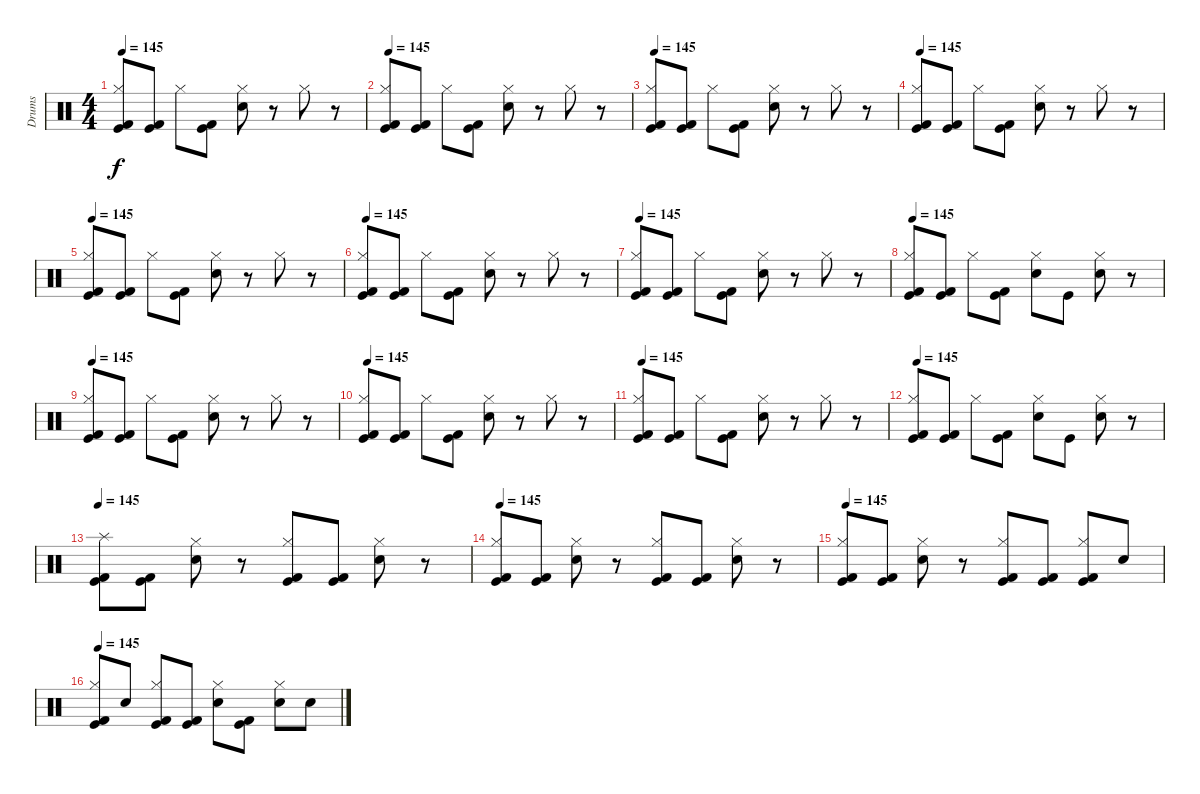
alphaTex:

\track ("Drums" "Drums") {instrument percussion}
\staff {score}
\articulation defaults
\ts (4 4)
\tempo 145
\clef neutral
\ks c
("Kick (hit) 2" "Hi-Hat (closed)" "Kick (hit)").8{dy f} ("Kick (hit) 2" "Kick (hit)").8 "Hi-Hat (closed)".8 ("Kick (hit) 2" "Kick (hit)").8 ("Electric Snare (hit)" "Hi-Hat (closed)").8 r.8 "Hi-Hat (closed)".8 r.8 |
\tempo 145
("Kick (hit) 2" "Hi-Hat (closed)" "Kick (hit)").8 ("Kick (hit) 2" "Kick (hit)").8 "Hi-Hat (closed)".8 ("Kick (hit) 2" "Kick (hit)").8 ("Electric Snare (hit)" "Hi-Hat (closed)").8 r.8 "Hi-Hat (closed)".8 r.8 |
\tempo 145
("Kick (hit) 2" "Hi-Hat (closed)" "Kick (hit)").8 ("Kick (hit)" "Kick (hit) 2").8 "Hi-Hat (closed)".8 ("Kick (hit) 2" "Kick (hit)").8 ("Electric Snare (hit)" "Hi-Hat (closed)").8 r.8 "Hi-Hat (closed)".8 r.8 |
\tempo 145
("Kick (hit) 2" "Hi-Hat (closed)" "Kick (hit)").8 ("Kick (hit) 2" "Kick (hit)").8 "Hi-Hat (closed)".8 ("Kick (hit) 2" "Kick (hit)").8 ("Electric Snare (hit)" "Hi-Hat (closed)").8 r.8 "Hi-Hat (closed)".8 r.8 |
\tempo 145
("Kick (hit) 2" "Hi-Hat (closed)" "Kick (hit)").8 ("Kick (hit) 2" "Kick (hit)").8 "Hi-Hat (closed)".8 ("Kick (hit) 2" "Kick (hit)").8 ("Electric Snare (hit)" "Hi-Hat (closed)").8 r.8 "Hi-Hat (closed)".8 r.8 |
\tempo 145
("Kick (hit) 2" "Hi-Hat (closed)" "Kick (hit)").8 ("Kick (hit) 2" "Kick (hit)").8 "Hi-Hat (closed)".8 ("Kick (hit) 2" "Kick (hit)").8 ("Electric Snare (hit)" "Hi-Hat (closed)").8 r.8 "Hi-Hat (closed)".8 r.8 |
\tempo 145
("Kick (hit) 2" "Hi-Hat (closed)" "Kick (hit)").8 ("Kick (hit)" "Kick (hit) 2").8 "Hi-Hat (closed)".8 ("Kick (hit) 2" "Kick (hit)").8 ("Electric Snare (hit)" "Hi-Hat (closed)").8 r.8 "Hi-Hat (closed)".8 r.8 |
\tempo 145
("Kick (hit) 2" "Hi-Hat (closed)" "Kick (hit)").8 ("Kick (hit) 2" "Kick (hit)").8 "Hi-Hat (closed)".8 ("Kick (hit) 2" "Kick (hit)").8 ("Electric Snare (hit)" "Hi-Hat (closed)").8 "Kick (hit)".8 ("Snare (hit) 2" "Hi-Hat (closed)").8 r.8 |
\tempo 145
("Kick (hit) 2" "Hi-Hat (closed)" "Kick (hit)").8 ("Kick (hit) 2" "Kick (hit)").8 "Hi-Hat (closed)".8 ("Kick (hit) 2" "Kick (hit)").8 ("Electric Snare (hit)" "Hi-Hat (closed)").8 r.8 "Hi-Hat (closed)".8 r.8 |
\tempo 145
("Kick (hit) 2" "Hi-Hat (closed)" "Kick (hit)").8 ("Kick (hit) 2" "Kick (hit)").8 "Hi-Hat (closed)".8 ("Kick (hit) 2" "Kick (hit)").8 ("Electric Snare (hit)" "Hi-Hat (closed)").8 r.8 "Hi-Hat (closed)".8 r.8 |
\tempo 145
("Kick (hit) 2" "Hi-Hat (closed)" "Kick (hit)").8 ("Kick (hit)" "Kick (hit) 2").8 "Hi-Hat (closed)".8 ("Kick (hit) 2" "Kick (hit)").8 ("Electric Snare (hit)" "Hi-Hat (closed)").8 r.8 "Hi-Hat (closed)".8 r.8 |
\tempo 145
("Kick (hit) 2" "Hi-Hat (closed)" "Kick (hit)").8 ("Kick (hit) 2" "Kick (hit)").8 "Hi-Hat (closed)".8 ("Kick (hit) 2" "Kick (hit)").8 ("Electric Snare (hit)" "Hi-Hat (closed)").8 "Kick (hit)".8 ("Snare (hit) 2" "Hi-Hat (closed)").8 r.8 |
\tempo 145
("Kick (hit)" "Splash (hit)" "Kick (hit) 2").8 ("Kick (hit)" "Kick (hit) 2").8 ("Hi-Hat (closed)" "Electric Snare (hit)").8 r.8 ("Kick (hit)" "Hi-Hat (closed)" "Kick (hit) 2").8 ("Kick (hit)" "Kick (hit) 2").8 ("Hi-Hat (closed)" "Electric Snare (hit)").8 r.8 |
\tempo 145
("Kick (hit)" "Hi-Hat (closed)" "Kick (hit) 2").8 ("Kick (hit)" "Kick (hit) 2").8 ("Hi-Hat (closed)" "Electric Snare (hit)").8 r.8 ("Kick (hit)" "Hi-Hat (closed)" "Kick (hit) 2").8 ("Kick (hit)" "Kick (hit) 2").8 ("Hi-Hat (closed)" "Electric Snare (hit)").8 r.8 |
\tempo 145
("Kick (hit)" "Hi-Hat (closed)" "Kick (hit) 2").8 ("Kick (hit)" "Kick (hit) 2").8 ("Hi-Hat (closed)" "Electric Snare (hit)").8 r.8 ("Kick (hit)" "Hi-Hat (closed)" "Kick (hit) 2").8 ("Kick (hit)" "Kick (hit) 2").8 ("Kick (hit)" "Hi-Hat (closed)" "Kick (hit) 2").8 "Electric Snare (hit)".8 |
\tempo 145
("Kick (hit)" "Hi-Hat (closed)" "Kick (hit) 2").8 "Electric Snare (hit)".8 ("Kick (hit)" "Hi-Hat (closed)" "Kick (hit) 2").8 ("Kick (hit) 2" "Kick (hit)").8 ("Hi-Hat (closed)" "Electric Snare (hit)").8 ("Kick (hit)" "Kick (hit) 2").8 ("Hi-Hat (closed)" "Electric Snare (hit)").8 "Snare (hit) 2".8
